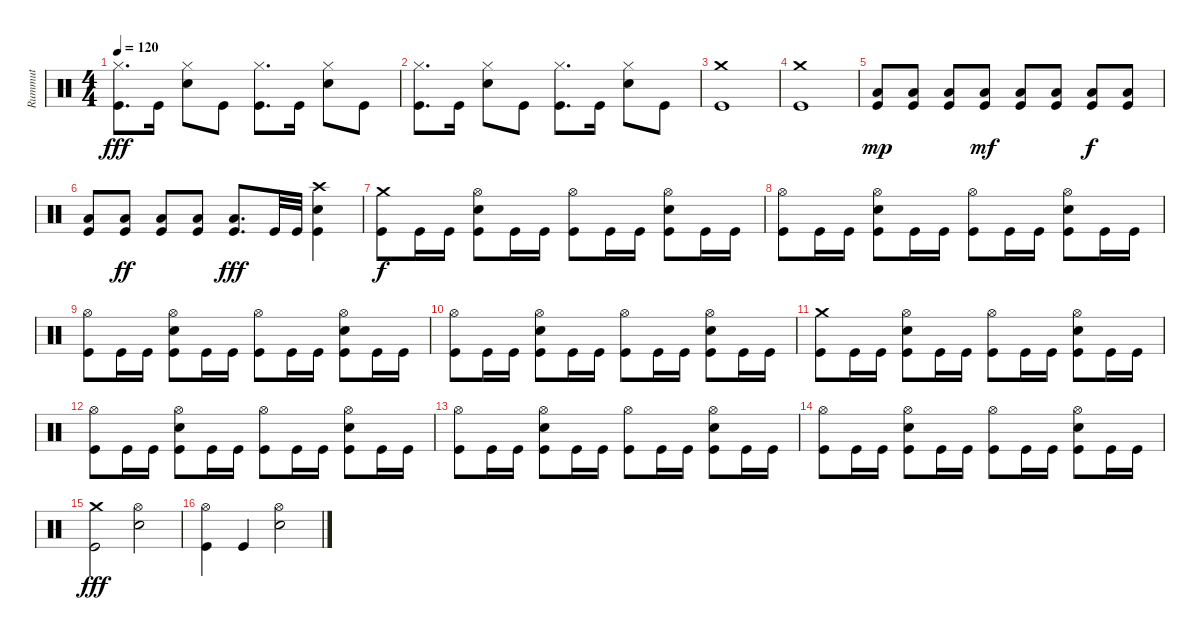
\track ("Rummut" "Rummut") {instrument percussion}
\staff {score}
\articulation defaults
\ts (4 4)
\tempo 120
\clef neutral
\ks c
("Hi-Hat (closed)" "Kick (hit)").8{d dy fff} "Kick (hit)".16 ("Hi-Hat (closed)" "Snare (hit) 2").8 "Kick (hit)".8 ("Hi-Hat (closed)" "Kick (hit)").8{d} "Kick (hit)".16 ("Hi-Hat (closed)" "Snare (hit) 2").8 "Kick (hit)".8 |
("Hi-Hat (closed)" "Kick (hit)").8{d} "Kick (hit)".16 ("Hi-Hat (closed)" "Snare (hit) 2").8 "Kick (hit)".8 ("Hi-Hat (closed)" "Kick (hit)").8{d} "Kick (hit)".16 ("Hi-Hat (closed)" "Snare (hit) 2").8 "Kick (hit)".8 |
("Crash medium (hit)" "Kick (hit)").1 |
("Crash medium (hit)" "Kick (hit)").1 |
("Low Tom (hit)" "Kick (hit)").8{dy mp} ("Low Tom (hit)" "Kick (hit)").8 ("Low Tom (hit)" "Kick (hit)").8 ("Low Tom (hit)" "Kick (hit)").8{dy mf} ("Low Tom (hit)" "Kick (hit)").8 ("Low Tom (hit)" "Kick (hit)").8 ("Low Tom (hit)" "Kick (hit)").8{dy f} ("Low Tom (hit)" "Kick (hit)").8 |
("Low Tom (hit)" "Kick (hit)").8 ("Low Tom (hit)" "Kick (hit)").8{dy ff} ("Low Tom (hit)" "Kick (hit)").8 ("Low Tom (hit)" "Kick (hit)").8 ("Low Tom (hit)" "Kick (hit)").8{d dy fff} "Kick (hit)".32 "Kick (hit)".32 ("Crash high (hit)" "Snare (hit) 2" "Kick (hit)").4 |
("Crash medium (hit)" "Kick (hit)").8{dy f} "Kick (hit)".16 "Kick (hit)".16 ("Hi-Hat (open)" "Snare (hit) 2" "Kick (hit)").8 "Kick (hit)".16 "Kick (hit)".16 ("Hi-Hat (open)" "Kick (hit)").8 "Kick (hit)".16 "Kick (hit)".16 ("Hi-Hat (open)" "Snare (hit) 2" "Kick (hit)").8 "Kick (hit)".16 "Kick (hit)".16 |
("Hi-Hat (open)" "Kick (hit)").8 "Kick (hit)".16 "Kick (hit)".16 ("Hi-Hat (open)" "Snare (hit) 2" "Kick (hit)").8 "Kick (hit)".16 "Kick (hit)".16 ("Hi-Hat (open)" "Kick (hit)").8 "Kick (hit)".16 "Kick (hit)".16 ("Hi-Hat (open)" "Snare (hit) 2" "Kick (hit)").8 "Kick (hit)".16 "Kick (hit)".16 |
("Hi-Hat (open)" "Kick (hit)").8 "Kick (hit)".16 "Kick (hit)".16 ("Hi-Hat (open)" "Snare (hit) 2" "Kick (hit)").8 "Kick (hit)".16 "Kick (hit)".16 ("Hi-Hat (open)" "Kick (hit)").8 "Kick (hit)".16 "Kick (hit)".16 ("Hi-Hat (open)" "Snare (hit) 2" "Kick (hit)").8 "Kick (hit)".16 "Kick (hit)".16 |
("Hi-Hat (open)" "Kick (hit)").8 "Kick (hit)".16 "Kick (hit)".16 ("Hi-Hat (open)" "Snare (hit) 2" "Kick (hit)").8 "Kick (hit)".16 "Kick (hit)".16 ("Hi-Hat (open)" "Kick (hit)").8 "Kick (hit)".16 "Kick (hit)".16 ("Hi-Hat (open)" "Snare (hit) 2" "Kick (hit)").8 "Kick (hit)".16 "Kick (hit)".16 |
("Crash medium (hit)" "Kick (hit)").8 "Kick (hit)".16 "Kick (hit)".16 ("Hi-Hat (open)" "Snare (hit) 2" "Kick (hit)").8 "Kick (hit)".16 "Kick (hit)".16 ("Hi-Hat (open)" "Kick (hit)").8 "Kick (hit)".16 "Kick (hit)".16 ("Hi-Hat (open)" "Snare (hit) 2" "Kick (hit)").8 "Kick (hit)".16 "Kick (hit)".16 |
("Hi-Hat (open)" "Kick (hit)").8 "Kick (hit)".16 "Kick (hit)".16 ("Hi-Hat (open)" "Snare (hit) 2" "Kick (hit)").8 "Kick (hit)".16 "Kick (hit)".16 ("Hi-Hat (open)" "Kick (hit)").8 "Kick (hit)".16 "Kick (hit)".16 ("Hi-Hat (open)" "Snare (hit) 2" "Kick (hit)").8 "Kick (hit)".16 "Kick (hit)".16 |
("Hi-Hat (open)" "Kick (hit)").8 "Kick (hit)".16 "Kick (hit)".16 ("Hi-Hat (open)" "Snare (hit) 2" "Kick (hit)").8 "Kick (hit)".16 "Kick (hit)".16 ("Hi-Hat (open)" "Kick (hit)").8 "Kick (hit)".16 "Kick (hit)".16 ("Hi-Hat (open)" "Snare (hit) 2" "Kick (hit)").8 "Kick (hit)".16 "Kick (hit)".16 |
("Hi-Hat (open)" "Kick (hit)").8 "Kick (hit)".16 "Kick (hit)".16 ("Hi-Hat (open)" "Snare (hit) 2" "Kick (hit)").8 "Kick (hit)".16 "Kick (hit)".16 ("Hi-Hat (open)" "Kick (hit)").8 "Kick (hit)".16 "Kick (hit)".16 ("Hi-Hat (open)" "Snare (hit) 2" "Kick (hit)").8 "Kick (hit)".16 "Kick (hit)".16 |
("Crash medium (hit)" "Kick (hit)").2{dy fff} ("Hi-Hat (open)" "Snare (hit) 2").2 |
("Hi-Hat (open)" "Kick (hit)").4 "Kick (hit)".4 ("Hi-Hat (open)" "Snare (hit) 2").2
